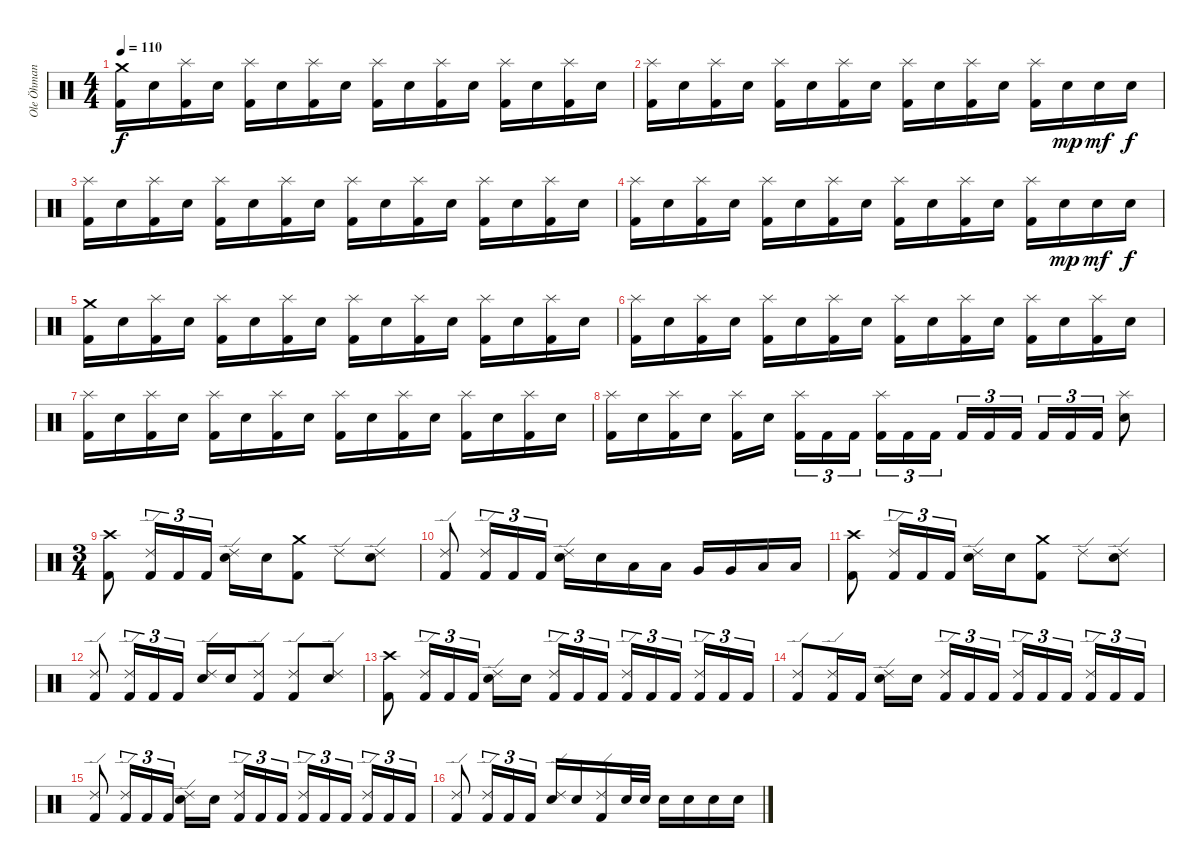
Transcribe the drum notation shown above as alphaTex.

\track ("Ole Öhman" "Ole Öhman") {instrument percussion}
\staff {score}
\articulation defaults
\ts (4 4)
\tempo 110
\clef neutral
\ks c
("Crash medium (hit)" "Kick (hit) 2").16{dy f} "Electric Snare (hit)".16 ("Splash (hit)" "Kick (hit) 2").16 "Electric Snare (hit)".16 ("Splash (hit)" "Kick (hit) 2").16 "Electric Snare (hit)".16 ("Splash (hit)" "Kick (hit) 2").16 "Electric Snare (hit)".16 ("Splash (hit)" "Kick (hit) 2").16 "Electric Snare (hit)".16 ("Splash (hit)" "Kick (hit) 2").16 "Electric Snare (hit)".16 ("Splash (hit)" "Kick (hit) 2").16 "Electric Snare (hit)".16 ("Splash (hit)" "Kick (hit) 2").16 "Electric Snare (hit)".16 |
("Splash (hit)" "Kick (hit) 2").16 "Electric Snare (hit)".16 ("Splash (hit)" "Kick (hit) 2").16 "Electric Snare (hit)".16 ("Splash (hit)" "Kick (hit) 2").16 "Electric Snare (hit)".16 ("Splash (hit)" "Kick (hit) 2").16 "Electric Snare (hit)".16 ("Splash (hit)" "Kick (hit) 2").16 "Electric Snare (hit)".16 ("Splash (hit)" "Kick (hit) 2").16 "Electric Snare (hit)".16 ("Splash (hit)" "Kick (hit) 2").16 "Electric Snare (hit)".16{dy mp} "Electric Snare (hit)".16{dy mf} "Electric Snare (hit)".16{dy f} |
("Splash (hit)" "Kick (hit) 2").16 "Electric Snare (hit)".16 ("Splash (hit)" "Kick (hit) 2").16 "Electric Snare (hit)".16 ("Splash (hit)" "Kick (hit) 2").16 "Electric Snare (hit)".16 ("Splash (hit)" "Kick (hit) 2").16 "Electric Snare (hit)".16 ("Splash (hit)" "Kick (hit) 2").16 "Electric Snare (hit)".16 ("Splash (hit)" "Kick (hit) 2").16 "Electric Snare (hit)".16 ("Splash (hit)" "Kick (hit) 2").16 "Electric Snare (hit)".16 ("Splash (hit)" "Kick (hit) 2").16 "Electric Snare (hit)".16 |
("Splash (hit)" "Kick (hit) 2").16 "Electric Snare (hit)".16 ("Splash (hit)" "Kick (hit) 2").16 "Electric Snare (hit)".16 ("Splash (hit)" "Kick (hit) 2").16 "Electric Snare (hit)".16 ("Splash (hit)" "Kick (hit) 2").16 "Electric Snare (hit)".16 ("Splash (hit)" "Kick (hit) 2").16 "Electric Snare (hit)".16 ("Splash (hit)" "Kick (hit) 2").16 "Electric Snare (hit)".16 ("Splash (hit)" "Kick (hit) 2").16 "Electric Snare (hit)".16{dy mp} "Electric Snare (hit)".16{dy mf} "Electric Snare (hit)".16{dy f} |
("Crash medium (hit)" "Kick (hit) 2").16 "Electric Snare (hit)".16 ("Splash (hit)" "Kick (hit) 2").16 "Electric Snare (hit)".16 ("Splash (hit)" "Kick (hit) 2").16 "Electric Snare (hit)".16 ("Splash (hit)" "Kick (hit) 2").16 "Electric Snare (hit)".16 ("Splash (hit)" "Kick (hit) 2").16 "Electric Snare (hit)".16 ("Splash (hit)" "Kick (hit) 2").16 "Electric Snare (hit)".16 ("Splash (hit)" "Kick (hit) 2").16 "Electric Snare (hit)".16 ("Splash (hit)" "Kick (hit) 2").16 "Electric Snare (hit)".16 |
("Splash (hit)" "Kick (hit) 2").16 "Electric Snare (hit)".16 ("Splash (hit)" "Kick (hit) 2").16 "Electric Snare (hit)".16 ("Splash (hit)" "Kick (hit) 2").16 "Electric Snare (hit)".16 ("Splash (hit)" "Kick (hit) 2").16 "Electric Snare (hit)".16 ("Splash (hit)" "Kick (hit) 2").16 "Electric Snare (hit)".16 ("Splash (hit)" "Kick (hit) 2").16 "Electric Snare (hit)".16 ("Splash (hit)" "Kick (hit) 2").16 "Electric Snare (hit)".16 ("Splash (hit)" "Kick (hit) 2").16 "Electric Snare (hit)".16 |
("Splash (hit)" "Kick (hit) 2").16 "Electric Snare (hit)".16 ("Splash (hit)" "Kick (hit) 2").16 "Electric Snare (hit)".16 ("Splash (hit)" "Kick (hit) 2").16 "Electric Snare (hit)".16 ("Splash (hit)" "Kick (hit) 2").16 "Electric Snare (hit)".16 ("Splash (hit)" "Kick (hit) 2").16 "Electric Snare (hit)".16 ("Splash (hit)" "Kick (hit) 2").16 "Electric Snare (hit)".16 ("Splash (hit)" "Kick (hit) 2").16 "Electric Snare (hit)".16 ("Splash (hit)" "Kick (hit) 2").16 "Electric Snare (hit)".16 |
("Splash (hit)" "Kick (hit) 2").16 "Electric Snare (hit)".16 ("Splash (hit)" "Kick (hit) 2").16 "Electric Snare (hit)".16 ("Splash (hit)" "Kick (hit) 2").16 "Electric Snare (hit)".16{beam splitsecondary} ("Splash (hit)" "Kick (hit) 2").16{tu (3 2)} "Kick (hit) 2".16{tu (3 2)} "Kick (hit) 2".16{tu (3 2)} ("Splash (hit)" "Kick (hit) 2").16{tu (3 2)} "Kick (hit) 2".16{tu (3 2)} "Kick (hit) 2".16{tu (3 2) beam splitsecondary} "Kick (hit) 2".16{tu (3 2)} "Kick (hit) 2".16{tu (3 2)} "Kick (hit) 2".16{tu (3 2)} "Kick (hit) 2".16{tu (3 2)} "Kick (hit) 2".16{tu (3 2)} "Kick (hit) 2".16{tu (3 2)} ("Splash (hit)" "Electric Snare (hit)").8 |
\ts (3 4)
("Crash high (hit)" "Kick (hit) 2").8 ("Ride (edge) 2" "Kick (hit) 2").16{tu (3 2)} "Kick (hit) 2".16{tu (3 2)} "Kick (hit) 2".16{tu (3 2)} ("Ride (edge) 2" "Electric Snare (hit)").16 "Electric Snare (hit)".16 ("Crash medium (hit)" "Kick (hit) 2").8 "Ride (edge) 2".8 ("Ride (edge) 2" "Electric Snare (hit)").8 |
("Ride (edge) 2" "Kick (hit) 2").8 ("Ride (edge) 2" "Kick (hit) 2").16{tu (3 2)} "Kick (hit) 2".16{tu (3 2)} "Kick (hit) 2".16{tu (3 2)} ("Ride (edge) 2" "Electric Snare (hit)").16 "Electric Snare (hit)".16 "Low Tom (hit)".16 "Low Tom (hit)".16 "Very Low Tom (hit)".16 "Very Low Tom (hit)".16 "Low Floor Tom (hit)".16 "Low Floor Tom (hit)".16 |
("Crash high (hit)" "Kick (hit) 2").8 ("Ride (edge) 2" "Kick (hit) 2").16{tu (3 2)} "Kick (hit) 2".16{tu (3 2)} "Kick (hit) 2".16{tu (3 2)} ("Ride (edge) 2" "Electric Snare (hit)").16 "Electric Snare (hit)".16 ("Crash medium (hit)" "Kick (hit) 2").8 "Ride (edge) 2".8 ("Ride (edge) 2" "Electric Snare (hit)").8 |
("Ride (edge) 2" "Kick (hit) 2").8 ("Ride (edge) 2" "Kick (hit) 2").16{tu (3 2)} "Kick (hit) 2".16{tu (3 2)} "Kick (hit) 2".16{tu (3 2)} ("Ride (edge) 2" "Electric Snare (hit)").16 "Electric Snare (hit)".16 ("Ride (edge) 2" "Kick (hit) 2").8 ("Ride (edge) 2" "Kick (hit) 2").8 ("Ride (edge) 2" "Electric Snare (hit)").8 |
("Crash high (hit)" "Kick (hit) 2").8 ("Ride (edge) 2" "Kick (hit) 2").16{tu (3 2)} "Kick (hit) 2".16{tu (3 2)} "Kick (hit) 2".16{tu (3 2)} ("Ride (edge) 2" "Electric Snare (hit)").16 "Electric Snare (hit)".16{beam splitsecondary} ("Ride (edge) 2" "Kick (hit) 2").16{tu (3 2)} "Kick (hit) 2".16{tu (3 2)} "Kick (hit) 2".16{tu (3 2)} ("Ride (edge) 2" "Kick (hit) 2").16{tu (3 2)} "Kick (hit) 2".16{tu (3 2)} "Kick (hit) 2".16{tu (3 2) beam splitsecondary} ("Ride (edge) 2" "Kick (hit) 2").16{tu (3 2)} "Kick (hit) 2".16{tu (3 2)} "Kick (hit) 2".16{tu (3 2)} |
("Ride (edge) 2" "Kick (hit) 2").8 ("Ride (edge) 2" "Kick (hit) 2").16 "Kick (hit) 2".16 ("Ride (edge) 2" "Electric Snare (hit)").16 "Electric Snare (hit)".16{beam splitsecondary} ("Ride (edge) 2" "Kick (hit) 2").16{tu (3 2)} "Kick (hit) 2".16{tu (3 2)} "Kick (hit) 2".16{tu (3 2)} ("Ride (edge) 2" "Kick (hit) 2").16{tu (3 2)} "Kick (hit) 2".16{tu (3 2)} "Kick (hit) 2".16{tu (3 2) beam splitsecondary} ("Ride (edge) 2" "Kick (hit) 2").16{tu (3 2)} "Kick (hit) 2".16{tu (3 2)} "Kick (hit) 2".16{tu (3 2)} |
("Ride (edge) 2" "Kick (hit) 2").8 ("Ride (edge) 2" "Kick (hit) 2").16{tu (3 2)} "Kick (hit) 2".16{tu (3 2)} "Kick (hit) 2".16{tu (3 2)} ("Ride (edge) 2" "Electric Snare (hit)").16 "Electric Snare (hit)".16{beam splitsecondary} ("Ride (edge) 2" "Kick (hit) 2").16{tu (3 2)} "Kick (hit) 2".16{tu (3 2)} "Kick (hit) 2".16{tu (3 2)} ("Ride (edge) 2" "Kick (hit) 2").16{tu (3 2)} "Kick (hit) 2".16{tu (3 2)} "Kick (hit) 2".16{tu (3 2) beam splitsecondary} ("Ride (edge) 2" "Kick (hit) 2").16{tu (3 2)} "Kick (hit) 2".16{tu (3 2)} "Kick (hit) 2".16{tu (3 2)} |
("Ride (edge) 2" "Kick (hit) 2").8 ("Ride (edge) 2" "Kick (hit) 2").16{tu (3 2)} "Kick (hit) 2".16{tu (3 2)} "Kick (hit) 2".16{tu (3 2)} ("Ride (edge) 2" "Electric Snare (hit)").16 "Electric Snare (hit)".16 ("Ride (edge) 2" "Kick (hit) 2").16 "Electric Snare (hit)".32 "Electric Snare (hit)".32 "Electric Snare (hit)".16 "Electric Snare (hit)".16 "Electric Snare (hit)".16 "Electric Snare (hit)".16
